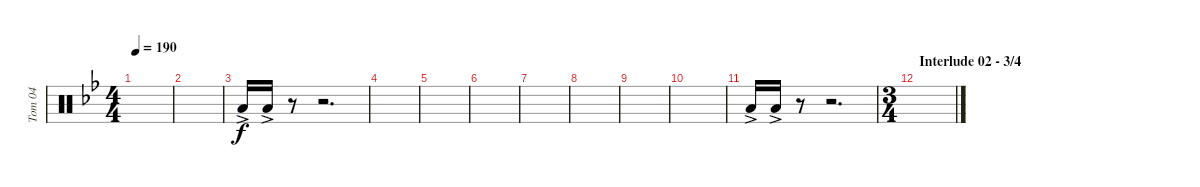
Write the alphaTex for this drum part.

\track ("Tom 04" "Tom 04") {instrument percussion}
\staff {score}
\articulation defaults
\ts (4 4)
\tempo 190
\clef neutral
\ks bb
|
|
"Low Tom (hit)"{ac}.16 "Low Tom (hit)"{ac}.16 r.8 r.2{d} |
|
|
|
|
|
|
|
"Low Tom (hit)"{ac}.16 "Low Tom (hit)"{ac}.16 r.8 r.2{d} |
\ts (3 4)
\section ("" "Interlude 02 - 3/4")
